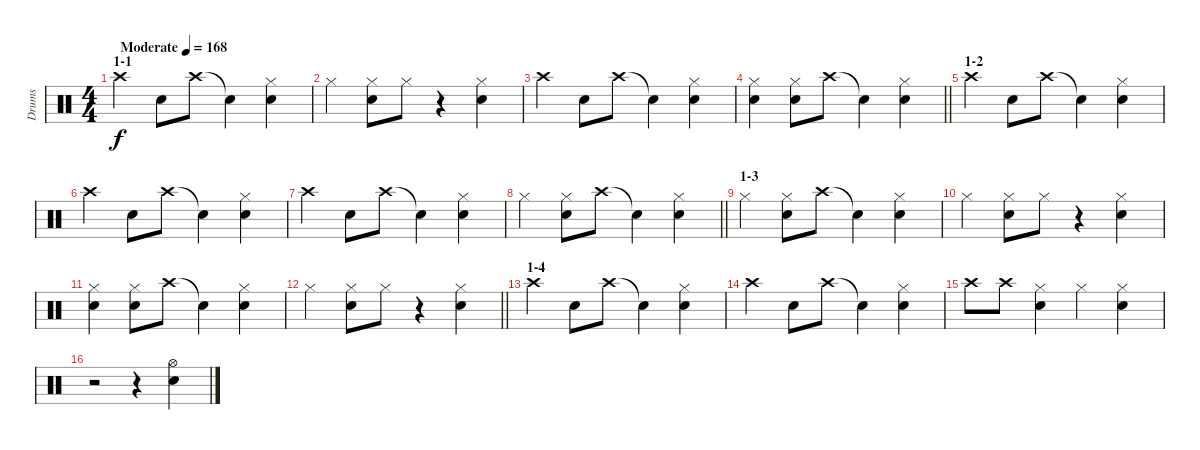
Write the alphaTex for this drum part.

\track ("Drums" "Drums") {instrument percussion}
\staff {score}
\articulation defaults
\ts (4 4)
\section ("" "1-1")
\tempo (168 "Moderate")
\clef neutral
\ks c "Crash high (hit)".4{dy f} "Snare (hit) 2".8 "Crash high (hit)".8 "Snare (hit)"{t}.4
("Hi-Hat (closed)" "Snare (hit) 2").4 |
"Hi-Hat (closed)".4 ("Hi-Hat (closed)" "Snare (hit) 2").8 "Hi-Hat (closed)".8 r.4 ("Hi-Hat (closed)" "Snare (hit) 2").4 |
"Crash high (hit)".4 "Snare (hit) 2".8 "Crash high (hit)".8 "Snare (hit)"{t}.4 ("Hi-Hat (closed)" "Snare (hit) 2").4 |
\barLineRight lightlight
("Hi-Hat (closed)" "Snare (hit) 2").4 ("Hi-Hat (closed)" "Snare (hit) 2").8 "Crash high (hit)".8 "Snare (hit)"{t}.4 ("Hi-Hat (closed)" "Snare (hit) 2").4 |
\section ("" "1-2")
"Crash high (hit)".4 "Snare (hit) 2".8 "Crash high (hit)".8 "Snare (hit)"{t}.4 ("Hi-Hat (closed)" "Snare (hit) 2").4 |
"Crash high (hit)".4 "Snare (hit) 2".8 "Crash high (hit)".8 "Snare (hit)"{t}.4 ("Hi-Hat (closed)" "Snare (hit) 2").4 |
"Crash high (hit)".4 "Snare (hit) 2".8 "Crash high (hit)".8 "Snare (hit)"{t}.4 ("Hi-Hat (closed)" "Snare (hit) 2").4 |
\barLineRight lightlight "Hi-Hat (closed)".4
("Hi-Hat (closed)" "Snare (hit) 2").8 "Crash high (hit)".8 "Snare (hit)"{t}.4 ("Hi-Hat (closed)" "Snare (hit) 2").4 |
\section ("" "1-3")
"Hi-Hat (closed)".4 ("Hi-Hat (closed)" "Snare (hit) 2").8 "Crash high (hit)".8 "Snare (hit)"{t}.4 ("Hi-Hat (closed)" "Snare (hit) 2").4 |
"Hi-Hat (closed)".4 ("Hi-Hat (closed)" "Snare (hit) 2").8 "Hi-Hat (closed)".8 r.4 ("Hi-Hat (closed)" "Snare (hit) 2").4 |
("Hi-Hat (closed)" "Snare (hit) 2").4 ("Hi-Hat (closed)" "Snare (hit) 2").8 "Crash high (hit)".8 "Snare (hit)"{t}.4 ("Hi-Hat (closed)" "Snare (hit) 2").4 |
\barLineRight lightlight "Hi-Hat (closed)".4
("Hi-Hat (closed)" "Snare (hit) 2").8 "Hi-Hat (closed)".8 r.4 ("Hi-Hat (closed)" "Snare (hit) 2").4 |
\section ("" "1-4")
"Crash high (hit)".4 "Snare (hit) 2".8 "Crash high (hit)".8 "Snare (hit)"{t}.4 ("Hi-Hat (closed)" "Snare (hit) 2").4 |
"Crash high (hit)".4 "Snare (hit) 2".8 "Crash high (hit)".8 "Snare (hit)"{t}.4 ("Hi-Hat (closed)" "Snare (hit) 2").4 |
"Crash high (hit)".8 "Crash high (hit)".8 ("Hi-Hat (closed)" "Snare (hit) 2").4 "Hi-Hat (closed)".4 ("Hi-Hat (closed)" "Snare (hit) 2").4 |
r.2 r.4 ("Hi-Hat (open)" "Snare (hit) 2").4
